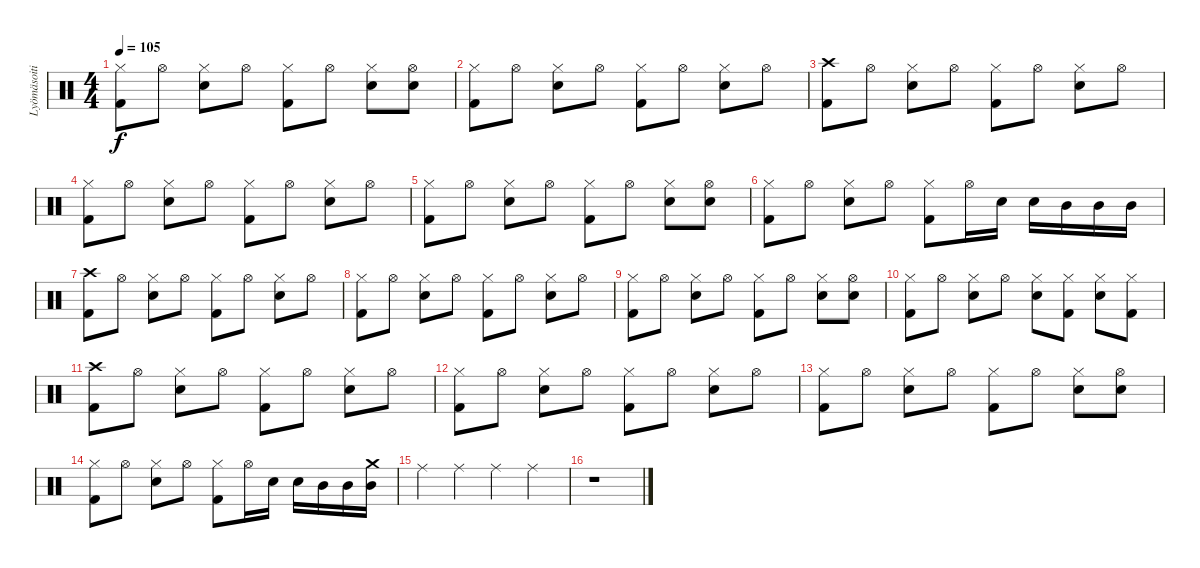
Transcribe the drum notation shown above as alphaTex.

\track ("Lyömäsoitin" "Lyömäsoiti") {instrument percussion}
\staff {score}
\articulation defaults
\ts (4 4)
\tempo 105
\clef neutral
\ks c
("Hi-Hat (closed)" "Kick (hit) 2").8{dy f} "Hi-Hat (open)".8 ("Hi-Hat (closed)" "Snare (hit) 2").8 "Hi-Hat (open)".8 ("Hi-Hat (closed)" "Kick (hit) 2").8 "Hi-Hat (open)".8 ("Hi-Hat (closed)" "Snare (hit) 2").8 ("Hi-Hat (open)" "Snare (hit) 2").8 |
("Hi-Hat (closed)" "Kick (hit) 2").8 "Hi-Hat (open)".8 ("Hi-Hat (closed)" "Snare (hit) 2").8 "Hi-Hat (open)".8 ("Hi-Hat (closed)" "Kick (hit) 2").8 "Hi-Hat (open)".8 ("Hi-Hat (closed)" "Snare (hit) 2").8 "Hi-Hat (open)".8 |
("Crash high (hit)" "Kick (hit) 2").8 "Hi-Hat (open)".8 ("Hi-Hat (closed)" "Snare (hit) 2").8 "Hi-Hat (open)".8 ("Hi-Hat (closed)" "Kick (hit) 2").8 "Hi-Hat (open)".8 ("Hi-Hat (closed)" "Snare (hit) 2").8 "Hi-Hat (open)".8 |
("Hi-Hat (closed)" "Kick (hit) 2").8 "Hi-Hat (open)".8 ("Hi-Hat (closed)" "Snare (hit) 2").8 "Hi-Hat (open)".8 ("Hi-Hat (closed)" "Kick (hit) 2").8 "Hi-Hat (open)".8 ("Hi-Hat (closed)" "Snare (hit) 2").8 "Hi-Hat (open)".8 |
("Hi-Hat (closed)" "Kick (hit) 2").8 "Hi-Hat (open)".8 ("Hi-Hat (closed)" "Snare (hit) 2").8 "Hi-Hat (open)".8 ("Hi-Hat (closed)" "Kick (hit) 2").8 "Hi-Hat (open)".8 ("Hi-Hat (closed)" "Snare (hit) 2").8 ("Hi-Hat (open)" "Snare (hit) 2").8 |
("Hi-Hat (closed)" "Kick (hit) 2").8 "Hi-Hat (open)".8 ("Hi-Hat (closed)" "Snare (hit) 2").8 "Hi-Hat (open)".8 ("Hi-Hat (closed)" "Kick (hit) 2").8 "Hi-Hat (open)".16 "Snare (hit) 2".16 "Snare (hit) 2".16 "Mid Tom (hit)".16 "Mid Tom (hit)".16 "Mid Tom (hit)".16 |
("Crash high (hit)" "Kick (hit) 2").8 "Hi-Hat (open)".8 ("Hi-Hat (closed)" "Snare (hit) 2").8 "Hi-Hat (open)".8 ("Hi-Hat (closed)" "Kick (hit) 2").8 "Hi-Hat (open)".8 ("Hi-Hat (closed)" "Snare (hit) 2").8 "Hi-Hat (open)".8 |
("Hi-Hat (closed)" "Kick (hit) 2").8 "Hi-Hat (open)".8 ("Hi-Hat (closed)" "Snare (hit) 2").8 "Hi-Hat (open)".8 ("Hi-Hat (closed)" "Kick (hit) 2").8 "Hi-Hat (open)".8 ("Hi-Hat (closed)" "Snare (hit) 2").8 "Hi-Hat (open)".8 |
("Hi-Hat (closed)" "Kick (hit) 2").8 "Hi-Hat (open)".8 ("Hi-Hat (closed)" "Snare (hit) 2").8 "Hi-Hat (open)".8 ("Hi-Hat (closed)" "Kick (hit) 2").8 "Hi-Hat (open)".8 ("Hi-Hat (closed)" "Snare (hit) 2").8 ("Hi-Hat (open)" "Snare (hit) 2").8 |
("Hi-Hat (closed)" "Kick (hit) 2").8 "Hi-Hat (open)".8 ("Hi-Hat (closed)" "Snare (hit) 2").8 "Hi-Hat (open)".8 ("Hi-Hat (closed)" "Snare (hit) 2").8 ("Hi-Hat (closed)" "Kick (hit) 2").8 ("Hi-Hat (closed)" "Snare (hit) 2").8 ("Hi-Hat (closed)" "Kick (hit) 2").8 |
("Crash high (hit)" "Kick (hit) 2").8 "Hi-Hat (open)".8 ("Hi-Hat (closed)" "Snare (hit) 2").8 "Hi-Hat (open)".8 ("Hi-Hat (closed)" "Kick (hit) 2").8 "Hi-Hat (open)".8 ("Hi-Hat (closed)" "Snare (hit) 2").8 "Hi-Hat (open)".8 |
("Hi-Hat (closed)" "Kick (hit) 2").8 "Hi-Hat (open)".8 ("Hi-Hat (closed)" "Snare (hit) 2").8 "Hi-Hat (open)".8 ("Hi-Hat (closed)" "Kick (hit) 2").8 "Hi-Hat (open)".8 ("Hi-Hat (closed)" "Snare (hit) 2").8 "Hi-Hat (open)".8 |
("Hi-Hat (closed)" "Kick (hit) 2").8 "Hi-Hat (open)".8 ("Hi-Hat (closed)" "Snare (hit) 2").8 "Hi-Hat (open)".8 ("Hi-Hat (closed)" "Kick (hit) 2").8 "Hi-Hat (open)".8 ("Hi-Hat (closed)" "Snare (hit) 2").8 ("Hi-Hat (open)" "Snare (hit) 2").8 |
("Hi-Hat (closed)" "Kick (hit) 2").8 "Hi-Hat (open)".8 ("Hi-Hat (closed)" "Snare (hit) 2").8 "Hi-Hat (open)".8 ("Hi-Hat (closed)" "Kick (hit) 2").8 "Hi-Hat (open)".16 "Snare (hit) 2".16 "Snare (hit) 2".16 "Mid Tom (hit)".16 "Mid Tom (hit)".16 ("Crash medium (hit)" "Mid Tom (hit)").16 |
"Ride (middle)".4 "Ride (middle)".4 "Ride (middle)".4 "Ride (middle)".4 |
r.1
